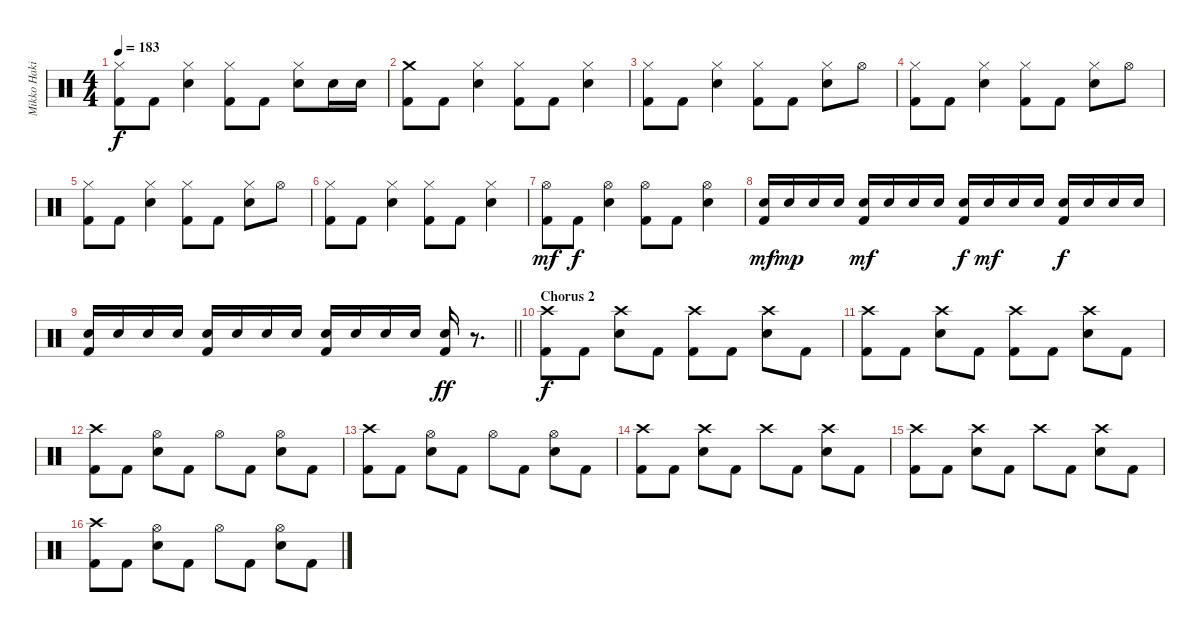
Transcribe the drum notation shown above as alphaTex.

\track ("Mikko Hakila - Drums" "Mikko Haki") {instrument percussion}
\staff {score}
\articulation defaults
\ts (4 4)
\tempo 183
\clef neutral
\ks c
("Hi-Hat (closed)" "Kick (hit) 2").8{dy f} "Kick (hit) 2".8 ("Hi-Hat (closed)" "Electric Snare (hit)").4 ("Hi-Hat (closed)" "Kick (hit) 2").8 "Kick (hit) 2".8 ("Hi-Hat (closed)" "Electric Snare (hit)").8 "Electric Snare (hit)".16 "Electric Snare (hit)".16 |
("Crash medium (hit)" "Kick (hit) 2").8 "Kick (hit) 2".8 ("Hi-Hat (closed)" "Electric Snare (hit)").4 ("Hi-Hat (closed)" "Kick (hit) 2").8 "Kick (hit) 2".8 ("Hi-Hat (closed)" "Electric Snare (hit)").4 |
("Hi-Hat (closed)" "Kick (hit) 2").8 "Kick (hit) 2".8 ("Hi-Hat (closed)" "Electric Snare (hit)").4 ("Hi-Hat (closed)" "Kick (hit) 2").8 "Kick (hit) 2".8 ("Hi-Hat (closed)" "Electric Snare (hit)").8 "Hi-Hat (open)".8 |
("Hi-Hat (closed)" "Kick (hit) 2").8 "Kick (hit) 2".8 ("Hi-Hat (closed)" "Electric Snare (hit)").4 ("Hi-Hat (closed)" "Kick (hit) 2").8 "Kick (hit) 2".8 ("Hi-Hat (closed)" "Electric Snare (hit)").8 "Hi-Hat (open)".8 |
("Hi-Hat (closed)" "Kick (hit) 2").8 "Kick (hit) 2".8 ("Hi-Hat (closed)" "Electric Snare (hit)").4 ("Hi-Hat (closed)" "Kick (hit) 2").8 "Kick (hit) 2".8 ("Hi-Hat (closed)" "Electric Snare (hit)").8 "Hi-Hat (open)".8 |
("Hi-Hat (closed)" "Kick (hit) 2").8 "Kick (hit) 2".8 ("Hi-Hat (closed)" "Electric Snare (hit)").4 ("Hi-Hat (closed)" "Kick (hit) 2").8 "Kick (hit) 2".8 ("Hi-Hat (closed)" "Electric Snare (hit)").4 |
("Hi-Hat (open)" "Kick (hit) 2").8{dy mf} "Kick (hit) 2".8{dy f} ("Hi-Hat (open)" "Electric Snare (hit)").4 ("Hi-Hat (open)" "Kick (hit) 2").8 "Kick (hit) 2".8 ("Hi-Hat (open)" "Electric Snare (hit)").4 |
("Electric Snare (hit)" "Kick (hit) 2").16{dy mf} "Electric Snare (hit)".16{dy mp} "Electric Snare (hit)".16 "Electric Snare (hit)".16 ("Electric Snare (hit)" "Kick (hit) 2").16{dy mf} "Electric Snare (hit)".16 "Electric Snare (hit)".16 "Electric Snare (hit)".16 ("Electric Snare (hit)" "Kick (hit) 2").16{dy f} "Electric Snare (hit)".16{dy mf} "Electric Snare (hit)".16 "Electric Snare (hit)".16 ("Electric Snare (hit)" "Kick (hit) 2").16{dy f} "Electric Snare (hit)".16 "Electric Snare (hit)".16 "Electric Snare (hit)".16 |
\barLineRight lightlight
("Electric Snare (hit)" "Kick (hit) 2").16 "Electric Snare (hit)".16 "Electric Snare (hit)".16 "Electric Snare (hit)".16 ("Electric Snare (hit)" "Kick (hit) 2").16 "Electric Snare (hit)".16 "Electric Snare (hit)".16 "Electric Snare (hit)".16 ("Electric Snare (hit)" "Kick (hit) 2").16 "Electric Snare (hit)".16 "Electric Snare (hit)".16 "Electric Snare (hit)".16 ("Electric Snare (hit)" "Kick (hit) 2").16{dy ff} r.8{d} |
\section ("" "Chorus 2")
("Crash high (hit)" "Kick (hit) 2").8{dy f} "Kick (hit) 2".8 ("Crash high (hit)" "Electric Snare (hit)").8 "Kick (hit) 2".8 ("Crash high (hit)" "Kick (hit) 2").8 "Kick (hit) 2".8 ("Crash high (hit)" "Electric Snare (hit)").8 "Kick (hit) 2".8 |
("Crash high (hit)" "Kick (hit) 2").8 "Kick (hit) 2".8 ("Crash high (hit)" "Electric Snare (hit)").8 "Kick (hit) 2".8 ("Crash high (hit)" "Kick (hit) 2").8 "Kick (hit) 2".8 ("Crash high (hit)" "Electric Snare (hit)").8 "Kick (hit) 2".8 |
("Crash high (hit)" "Kick (hit) 2").8 "Kick (hit) 2".8 ("Hi-Hat (open)" "Electric Snare (hit)").8 "Kick (hit) 2".8 "Hi-Hat (open)".8 "Kick (hit) 2".8 ("Hi-Hat (open)" "Electric Snare (hit)").8 "Kick (hit) 2".8 |
("Crash high (hit)" "Kick (hit) 2").8 "Kick (hit) 2".8 ("Hi-Hat (open)" "Electric Snare (hit)").8 "Kick (hit) 2".8 "Hi-Hat (open)".8 "Kick (hit) 2".8 ("Hi-Hat (open)" "Electric Snare (hit)").8 "Kick (hit) 2".8 |
("Crash high (hit)" "Kick (hit) 2").8 "Kick (hit) 2".8 ("Crash high (hit)" "Electric Snare (hit)").8 "Kick (hit) 2".8 "Crash high (hit)".8 "Kick (hit) 2".8 ("Crash high (hit)" "Electric Snare (hit)").8 "Kick (hit) 2".8 |
("Crash high (hit)" "Kick (hit) 2").8 "Kick (hit) 2".8 ("Crash high (hit)" "Electric Snare (hit)").8 "Kick (hit) 2".8 "Crash high (hit)".8 "Kick (hit) 2".8 ("Crash high (hit)" "Electric Snare (hit)").8 "Kick (hit) 2".8 |
("Crash high (hit)" "Kick (hit) 2").8 "Kick (hit) 2".8 ("Hi-Hat (open)" "Electric Snare (hit)").8 "Kick (hit) 2".8 "Hi-Hat (open)".8 "Kick (hit) 2".8 ("Hi-Hat (open)" "Electric Snare (hit)").8 "Kick (hit) 2".8
